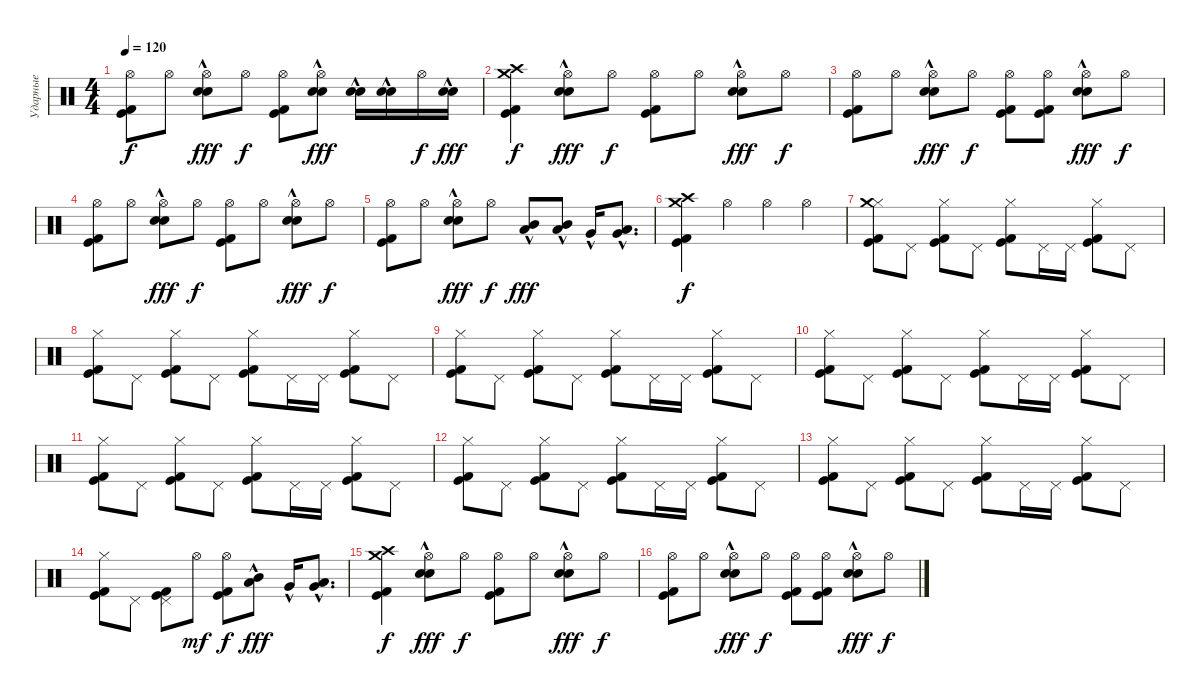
\track ("Ударные" "Ударные") {instrument percussion}
\staff {score}
\articulation defaults
\ts (4 4)
\tempo 120
\clef neutral
\ks c
("Hi-Hat (open)" "Kick (hit)" "Kick (hit) 2").8{dy f} "Hi-Hat (open)".8 ("Hi-Hat (open)" "Snare (hit) 2"{hac} "Electric Snare (hit)"{hac}).8{dy fff} "Hi-Hat (open)".8{dy f} ("Hi-Hat (open)" "Kick (hit)" "Kick (hit) 2").8 ("Hi-Hat (open)" "Snare (hit) 2"{hac} "Electric Snare (hit)"{hac}).8{dy fff} ("Snare (hit) 2"{hac} "Electric Snare (hit)"{hac}).16 ("Snare (hit) 2"{hac} "Electric Snare (hit)"{hac}).16 "Hi-Hat (open)".16{dy f} ("Snare (hit) 2"{hac} "Electric Snare (hit)"{hac}).16{dy fff} |
("Crash high (hit)" "Kick (hit)" "Kick (hit) 2" "Crash medium (hit)").4{dy f} ("Hi-Hat (open)" "Snare (hit) 2"{hac} "Electric Snare (hit)"{hac}).8{dy fff} "Hi-Hat (open)".8{dy f} ("Hi-Hat (open)" "Kick (hit)" "Kick (hit) 2").8 "Hi-Hat (open)".8 ("Hi-Hat (open)" "Snare (hit) 2"{hac} "Electric Snare (hit)"{hac}).8{dy fff} "Hi-Hat (open)".8{dy f} |
("Hi-Hat (open)" "Kick (hit)" "Kick (hit) 2").8 "Hi-Hat (open)".8 ("Hi-Hat (open)" "Snare (hit) 2"{hac} "Electric Snare (hit)"{hac}).8{dy fff} "Hi-Hat (open)".8{dy f} ("Hi-Hat (open)" "Kick (hit)" "Kick (hit) 2").8 ("Hi-Hat (open)" "Kick (hit)" "Kick (hit) 2").8 ("Hi-Hat (open)" "Snare (hit) 2"{hac} "Electric Snare (hit)"{hac}).8{dy fff} "Hi-Hat (open)".8{dy f} |
("Hi-Hat (open)" "Kick (hit)" "Kick (hit) 2").8 "Hi-Hat (open)".8 ("Hi-Hat (open)" "Snare (hit) 2"{hac} "Electric Snare (hit)"{hac}).8{dy fff} "Hi-Hat (open)".8{dy f} ("Hi-Hat (open)" "Kick (hit)" "Kick (hit) 2").8 "Hi-Hat (open)".8 ("Hi-Hat (open)" "Snare (hit) 2"{hac} "Electric Snare (hit)"{hac}).8{dy fff} "Hi-Hat (open)".8{dy f} |
("Hi-Hat (open)" "Kick (hit)" "Kick (hit) 2").8 "Hi-Hat (open)".8 ("Hi-Hat (open)" "Snare (hit) 2"{hac} "Electric Snare (hit)"{hac}).8{dy fff} "Hi-Hat (open)".8{dy f} ("Low Tom (hit)"{hac} "Mid Tom (hit)"{hac}).8{dy fff} ("Low Tom (hit)"{hac} "Mid Tom (hit)"{hac}).8 "Very Low Tom (hit)"{hac}.16 ("Low Floor Tom (hit)"{hac} "Very Low Tom (hit)"{hac}).8{d} |
("Crash high (hit)" "Kick (hit)" "Kick (hit) 2" "Crash medium (hit)").4{dy f} "Hi-Hat (open)".4 "Hi-Hat (open)".4 "Hi-Hat (open)".4 |
("Hi-Hat (closed)" "Kick (hit)" "Kick (hit) 2" "Crash medium (hit)").8 "Pedal Hi-Hat (hit)".8 ("Hi-Hat (closed)" "Kick (hit)" "Kick (hit) 2").8 "Pedal Hi-Hat (hit)".8 ("Hi-Hat (closed)" "Kick (hit)" "Kick (hit) 2").8 "Pedal Hi-Hat (hit)".16 "Pedal Hi-Hat (hit)".16 ("Hi-Hat (closed)" "Kick (hit)" "Kick (hit) 2").8 "Pedal Hi-Hat (hit)".8 |
("Hi-Hat (closed)" "Kick (hit)" "Kick (hit) 2").8 "Pedal Hi-Hat (hit)".8 ("Hi-Hat (closed)" "Kick (hit)" "Kick (hit) 2").8 "Pedal Hi-Hat (hit)".8 ("Hi-Hat (closed)" "Kick (hit)" "Kick (hit) 2").8 "Pedal Hi-Hat (hit)".16 "Pedal Hi-Hat (hit)".16 ("Hi-Hat (closed)" "Kick (hit)" "Kick (hit) 2").8 "Pedal Hi-Hat (hit)".8 |
("Hi-Hat (closed)" "Kick (hit)" "Kick (hit) 2").8 "Pedal Hi-Hat (hit)".8 ("Hi-Hat (closed)" "Kick (hit)" "Kick (hit) 2").8 "Pedal Hi-Hat (hit)".8 ("Hi-Hat (closed)" "Kick (hit)" "Kick (hit) 2").8 "Pedal Hi-Hat (hit)".16 "Pedal Hi-Hat (hit)".16 ("Hi-Hat (closed)" "Kick (hit)" "Kick (hit) 2").8 "Pedal Hi-Hat (hit)".8 |
("Hi-Hat (closed)" "Kick (hit)" "Kick (hit) 2").8 "Pedal Hi-Hat (hit)".8 ("Hi-Hat (closed)" "Kick (hit)" "Kick (hit) 2").8 "Pedal Hi-Hat (hit)".8 ("Hi-Hat (closed)" "Kick (hit)" "Kick (hit) 2").8 "Pedal Hi-Hat (hit)".16 "Pedal Hi-Hat (hit)".16 ("Hi-Hat (closed)" "Kick (hit)" "Kick (hit) 2").8 "Pedal Hi-Hat (hit)".8 |
("Hi-Hat (closed)" "Kick (hit)" "Kick (hit) 2").8 "Pedal Hi-Hat (hit)".8 ("Hi-Hat (closed)" "Kick (hit)" "Kick (hit) 2").8 "Pedal Hi-Hat (hit)".8 ("Hi-Hat (closed)" "Kick (hit)" "Kick (hit) 2").8 "Pedal Hi-Hat (hit)".16 "Pedal Hi-Hat (hit)".16 ("Hi-Hat (closed)" "Kick (hit)" "Kick (hit) 2").8 "Pedal Hi-Hat (hit)".8 |
("Hi-Hat (closed)" "Kick (hit)" "Kick (hit) 2").8 "Pedal Hi-Hat (hit)".8 ("Hi-Hat (closed)" "Kick (hit)" "Kick (hit) 2").8 "Pedal Hi-Hat (hit)".8 ("Hi-Hat (closed)" "Kick (hit)" "Kick (hit) 2").8 "Pedal Hi-Hat (hit)".16 "Pedal Hi-Hat (hit)".16 ("Hi-Hat (closed)" "Kick (hit)" "Kick (hit) 2").8 "Pedal Hi-Hat (hit)".8 |
("Hi-Hat (closed)" "Kick (hit)" "Kick (hit) 2").8 "Pedal Hi-Hat (hit)".8 ("Hi-Hat (closed)" "Kick (hit)" "Kick (hit) 2").8 "Pedal Hi-Hat (hit)".8 ("Hi-Hat (closed)" "Kick (hit)" "Kick (hit) 2").8 "Pedal Hi-Hat (hit)".16 "Pedal Hi-Hat (hit)".16 ("Hi-Hat (closed)" "Kick (hit)" "Kick (hit) 2").8 "Pedal Hi-Hat (hit)".8 |
("Hi-Hat (closed)" "Kick (hit)" "Kick (hit) 2").8 "Pedal Hi-Hat (hit)".8 ("Pedal Hi-Hat (hit)" "Kick (hit)" "Kick (hit) 2").8 "Hi-Hat (open)".8{dy mf} ("Hi-Hat (open)" "Kick (hit)" "Kick (hit) 2").8{dy f} ("Low Tom (hit)"{hac} "Mid Tom (hit)"{hac}).8{dy fff} "Very Low Tom (hit)"{hac}.16 ("Low Floor Tom (hit)"{hac} "Very Low Tom (hit)"{hac}).8{d} |
("Crash high (hit)" "Kick (hit)" "Kick (hit) 2" "Crash medium (hit)").4{dy f} ("Hi-Hat (open)" "Snare (hit) 2"{hac} "Electric Snare (hit)"{hac}).8{dy fff} "Hi-Hat (open)".8{dy f} ("Hi-Hat (open)" "Kick (hit)" "Kick (hit) 2").8 "Hi-Hat (open)".8 ("Hi-Hat (open)" "Snare (hit) 2"{hac} "Electric Snare (hit)"{hac}).8{dy fff} "Hi-Hat (open)".8{dy f} |
("Hi-Hat (open)" "Kick (hit)" "Kick (hit) 2").8 "Hi-Hat (open)".8 ("Hi-Hat (open)" "Snare (hit) 2"{hac} "Electric Snare (hit)"{hac}).8{dy fff} "Hi-Hat (open)".8{dy f} ("Hi-Hat (open)" "Kick (hit)" "Kick (hit) 2").8 ("Hi-Hat (open)" "Kick (hit)" "Kick (hit) 2").8 ("Hi-Hat (open)" "Snare (hit) 2"{hac} "Electric Snare (hit)"{hac}).8{dy fff} "Hi-Hat (open)".8{dy f}
